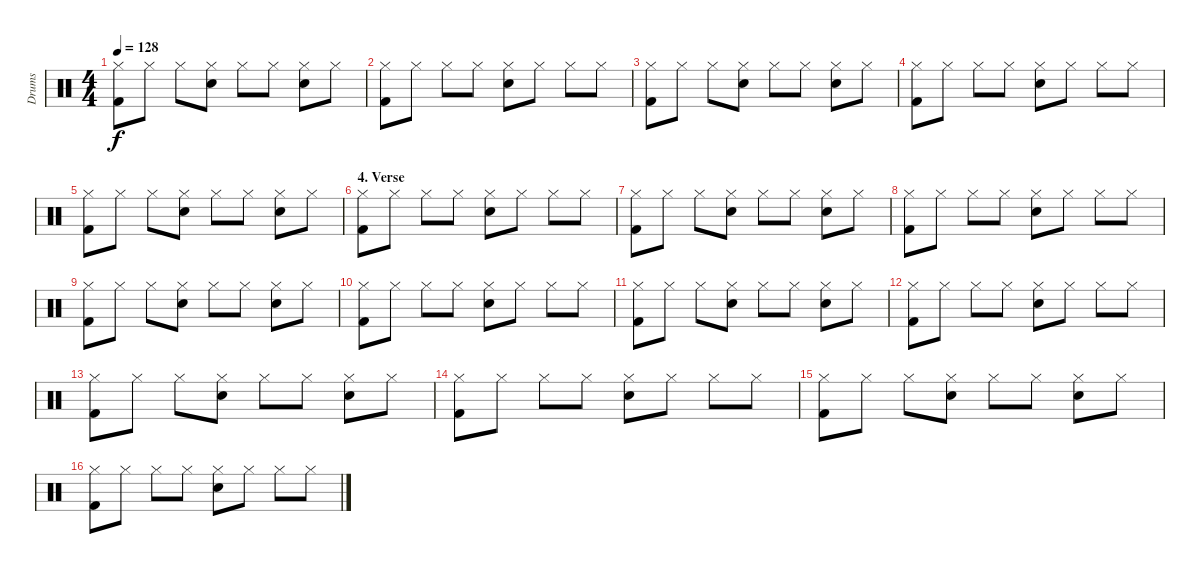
\track ("Drums" "Drums") {instrument percussion}
\staff {score}
\articulation defaults
\ts (4 4)
\tempo 128
\clef neutral
\ks c
("Hi-Hat (closed)" "Kick (hit) 2").8{dy f} "Hi-Hat (closed)".8 "Hi-Hat (closed)".8 ("Hi-Hat (closed)" "Snare (hit) 2").8 "Hi-Hat (closed)".8 "Hi-Hat (closed)".8 ("Hi-Hat (closed)" "Snare (hit) 2").8 "Hi-Hat (closed)".8 |
("Hi-Hat (closed)" "Kick (hit) 2").8 "Hi-Hat (closed)".8 "Hi-Hat (closed)".8 "Hi-Hat (closed)".8 ("Hi-Hat (closed)" "Snare (hit) 2").8 "Hi-Hat (closed)".8 "Hi-Hat (closed)".8 "Hi-Hat (closed)".8 |
("Hi-Hat (closed)" "Kick (hit) 2").8 "Hi-Hat (closed)".8 "Hi-Hat (closed)".8 ("Hi-Hat (closed)" "Snare (hit) 2").8 "Hi-Hat (closed)".8 "Hi-Hat (closed)".8 ("Hi-Hat (closed)" "Snare (hit) 2").8 "Hi-Hat (closed)".8 |
("Hi-Hat (closed)" "Kick (hit) 2").8 "Hi-Hat (closed)".8 "Hi-Hat (closed)".8 "Hi-Hat (closed)".8 ("Hi-Hat (closed)" "Snare (hit) 2").8 "Hi-Hat (closed)".8 "Hi-Hat (closed)".8 "Hi-Hat (closed)".8 |
("Hi-Hat (closed)" "Kick (hit) 2").8 "Hi-Hat (closed)".8 "Hi-Hat (closed)".8 ("Hi-Hat (closed)" "Snare (hit) 2").8 "Hi-Hat (closed)".8 "Hi-Hat (closed)".8 ("Hi-Hat (closed)" "Snare (hit) 2").8 "Hi-Hat (closed)".8 |
\section ("" "4. Verse")
("Hi-Hat (closed)" "Kick (hit) 2").8 "Hi-Hat (closed)".8 "Hi-Hat (closed)".8 "Hi-Hat (closed)".8 ("Hi-Hat (closed)" "Snare (hit) 2").8 "Hi-Hat (closed)".8 "Hi-Hat (closed)".8 "Hi-Hat (closed)".8 |
("Hi-Hat (closed)" "Kick (hit) 2").8 "Hi-Hat (closed)".8 "Hi-Hat (closed)".8 ("Hi-Hat (closed)" "Snare (hit) 2").8 "Hi-Hat (closed)".8 "Hi-Hat (closed)".8 ("Hi-Hat (closed)" "Snare (hit) 2").8 "Hi-Hat (closed)".8 |
("Hi-Hat (closed)" "Kick (hit) 2").8 "Hi-Hat (closed)".8 "Hi-Hat (closed)".8 "Hi-Hat (closed)".8 ("Hi-Hat (closed)" "Snare (hit) 2").8 "Hi-Hat (closed)".8 "Hi-Hat (closed)".8 "Hi-Hat (closed)".8 |
("Hi-Hat (closed)" "Kick (hit) 2").8 "Hi-Hat (closed)".8 "Hi-Hat (closed)".8 ("Hi-Hat (closed)" "Snare (hit) 2").8 "Hi-Hat (closed)".8 "Hi-Hat (closed)".8 ("Hi-Hat (closed)" "Snare (hit) 2").8 "Hi-Hat (closed)".8 |
("Hi-Hat (closed)" "Kick (hit) 2").8 "Hi-Hat (closed)".8 "Hi-Hat (closed)".8 "Hi-Hat (closed)".8 ("Hi-Hat (closed)" "Snare (hit) 2").8 "Hi-Hat (closed)".8 "Hi-Hat (closed)".8 "Hi-Hat (closed)".8 |
("Hi-Hat (closed)" "Kick (hit) 2").8 "Hi-Hat (closed)".8 "Hi-Hat (closed)".8 ("Hi-Hat (closed)" "Snare (hit) 2").8 "Hi-Hat (closed)".8 "Hi-Hat (closed)".8 ("Hi-Hat (closed)" "Snare (hit) 2").8 "Hi-Hat (closed)".8 |
("Hi-Hat (closed)" "Kick (hit) 2").8 "Hi-Hat (closed)".8 "Hi-Hat (closed)".8 "Hi-Hat (closed)".8 ("Hi-Hat (closed)" "Snare (hit) 2").8 "Hi-Hat (closed)".8 "Hi-Hat (closed)".8 "Hi-Hat (closed)".8 |
("Hi-Hat (closed)" "Kick (hit) 2").8 "Hi-Hat (closed)".8 "Hi-Hat (closed)".8 ("Hi-Hat (closed)" "Snare (hit) 2").8 "Hi-Hat (closed)".8 "Hi-Hat (closed)".8 ("Hi-Hat (closed)" "Snare (hit) 2").8 "Hi-Hat (closed)".8 |
("Hi-Hat (closed)" "Kick (hit) 2").8 "Hi-Hat (closed)".8 "Hi-Hat (closed)".8 "Hi-Hat (closed)".8 ("Hi-Hat (closed)" "Snare (hit) 2").8 "Hi-Hat (closed)".8 "Hi-Hat (closed)".8 "Hi-Hat (closed)".8 |
("Hi-Hat (closed)" "Kick (hit) 2").8 "Hi-Hat (closed)".8 "Hi-Hat (closed)".8 ("Hi-Hat (closed)" "Snare (hit) 2").8 "Hi-Hat (closed)".8 "Hi-Hat (closed)".8 ("Hi-Hat (closed)" "Snare (hit) 2").8 "Hi-Hat (closed)".8 |
("Hi-Hat (closed)" "Kick (hit) 2").8 "Hi-Hat (closed)".8 "Hi-Hat (closed)".8 "Hi-Hat (closed)".8 ("Hi-Hat (closed)" "Snare (hit) 2").8 "Hi-Hat (closed)".8 "Hi-Hat (closed)".8 "Hi-Hat (closed)".8
